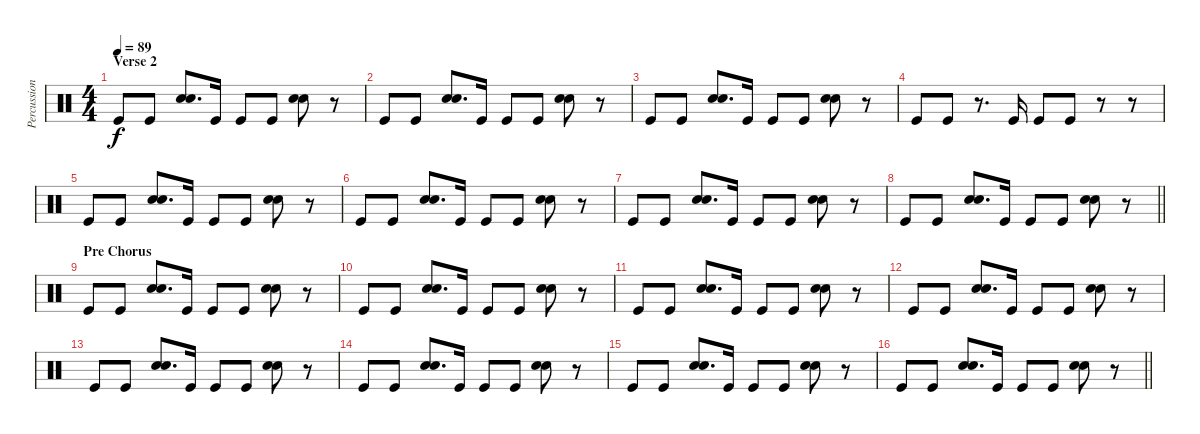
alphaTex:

\track ("Percussion" "Percussion") {instrument percussion}
\staff {score}
\articulation defaults
\ts (4 4)
\section ("" "Verse 2")
\tempo 89
\clef neutral
\ks c "Kick (hit)".8{dy f} "Kick (hit)".8
("Electric Snare (hit)" "Hand Clap (hit)").8{d} "Kick (hit)".16 "Kick (hit)".8 "Kick (hit)".8 ("Electric Snare (hit)" "Hand Clap (hit)").8 r.8 |
"Kick (hit)".8 "Kick (hit)".8 ("Electric Snare (hit)" "Hand Clap (hit)").8{d} "Kick (hit)".16 "Kick (hit)".8 "Kick (hit)".8 ("Electric Snare (hit)" "Hand Clap (hit)").8 r.8 |
"Kick (hit)".8 "Kick (hit)".8 ("Electric Snare (hit)" "Hand Clap (hit)").8{d} "Kick (hit)".16 "Kick (hit)".8 "Kick (hit)".8 ("Electric Snare (hit)" "Hand Clap (hit)").8 r.8 |
"Kick (hit)".8 "Kick (hit)".8 r.8{d} "Kick (hit)".16 "Kick (hit)".8 "Kick (hit)".8 r.8 r.8 |
"Kick (hit)".8 "Kick (hit)".8 ("Electric Snare (hit)" "Hand Clap (hit)").8{d} "Kick (hit)".16 "Kick (hit)".8 "Kick (hit)".8 ("Electric Snare (hit)" "Hand Clap (hit)").8 r.8 |
"Kick (hit)".8 "Kick (hit)".8 ("Electric Snare (hit)" "Hand Clap (hit)").8{d} "Kick (hit)".16 "Kick (hit)".8 "Kick (hit)".8 ("Electric Snare (hit)" "Hand Clap (hit)").8 r.8 |
"Kick (hit)".8 "Kick (hit)".8 ("Electric Snare (hit)" "Hand Clap (hit)").8{d} "Kick (hit)".16 "Kick (hit)".8 "Kick (hit)".8 ("Electric Snare (hit)" "Hand Clap (hit)").8 r.8 |
\barLineRight lightlight "Kick (hit)".8 "Kick (hit)".8
("Electric Snare (hit)" "Hand Clap (hit)").8{d} "Kick (hit)".16 "Kick (hit)".8 "Kick (hit)".8 ("Electric Snare (hit)" "Hand Clap (hit)").8 r.8 |
\section ("" "Pre Chorus")
"Kick (hit)".8 "Kick (hit)".8 ("Electric Snare (hit)" "Hand Clap (hit)").8{d} "Kick (hit)".16 "Kick (hit)".8 "Kick (hit)".8 ("Electric Snare (hit)" "Hand Clap (hit)").8 r.8 |
"Kick (hit)".8 "Kick (hit)".8 ("Electric Snare (hit)" "Hand Clap (hit)").8{d} "Kick (hit)".16 "Kick (hit)".8 "Kick (hit)".8 ("Electric Snare (hit)" "Hand Clap (hit)").8 r.8 |
"Kick (hit)".8 "Kick (hit)".8 ("Electric Snare (hit)" "Hand Clap (hit)").8{d} "Kick (hit)".16 "Kick (hit)".8 "Kick (hit)".8 ("Electric Snare (hit)" "Hand Clap (hit)").8 r.8 |
"Kick (hit)".8 "Kick (hit)".8 ("Electric Snare (hit)" "Hand Clap (hit)").8{d} "Kick (hit)".16 "Kick (hit)".8 "Kick (hit)".8 ("Electric Snare (hit)" "Hand Clap (hit)").8 r.8 |
"Kick (hit)".8 "Kick (hit)".8 ("Electric Snare (hit)" "Hand Clap (hit)").8{d} "Kick (hit)".16 "Kick (hit)".8 "Kick (hit)".8 ("Electric Snare (hit)" "Hand Clap (hit)").8 r.8 |
"Kick (hit)".8 "Kick (hit)".8 ("Electric Snare (hit)" "Hand Clap (hit)").8{d} "Kick (hit)".16 "Kick (hit)".8 "Kick (hit)".8 ("Electric Snare (hit)" "Hand Clap (hit)").8 r.8 |
"Kick (hit)".8 "Kick (hit)".8 ("Electric Snare (hit)" "Hand Clap (hit)").8{d} "Kick (hit)".16 "Kick (hit)".8 "Kick (hit)".8 ("Electric Snare (hit)" "Hand Clap (hit)").8 r.8 |
\barLineRight lightlight "Kick (hit)".8 "Kick (hit)".8
("Electric Snare (hit)" "Hand Clap (hit)").8{d} "Kick (hit)".16 "Kick (hit)".8 "Kick (hit)".8 ("Electric Snare (hit)" "Hand Clap (hit)").8 r.8
